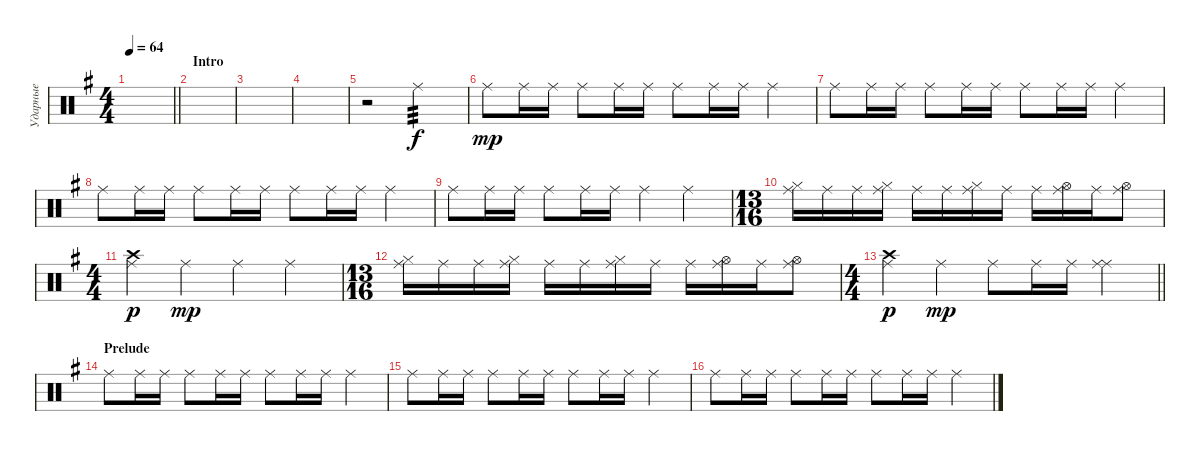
\track ("Ударные" "Ударные") {instrument percussion}
\staff {score}
\articulation defaults
\ts (4 4)
\tempo 64
\clef neutral
\barLineRight lightlight
\ks eminor
|
\section ("" "Intro")
|
|
|
r.2{volume 0} "Ride (middle)".2{tp 3 volume 16} |
"Ride (middle)".8{dy mp} "Ride (middle)".16 "Ride (middle)".16 "Ride (middle)".8 "Ride (middle)".16 "Ride (middle)".16 "Ride (middle)".8 "Ride (middle)".16 "Ride (middle)".16 "Ride (middle)".4 |
"Ride (middle)".8 "Ride (middle)".16 "Ride (middle)".16 "Ride (middle)".8 "Ride (middle)".16 "Ride (middle)".16 "Ride (middle)".8 "Ride (middle)".16 "Ride (middle)".16 "Ride (middle)".4 |
"Ride (middle)".8 "Ride (middle)".16 "Ride (middle)".16 "Ride (middle)".8 "Ride (middle)".16 "Ride (middle)".16 "Ride (middle)".8 "Ride (middle)".16 "Ride (middle)".16 "Ride (middle)".4 |
"Ride (middle)".8 "Ride (middle)".16 "Ride (middle)".16 "Ride (middle)".8 "Ride (middle)".16 "Ride (middle)".16 "Ride (middle)".4 "Ride (middle)".4 |
\ts (13 16)
("Hi-Hat (closed)" "Ride (middle)").16 "Ride (middle)".16 "Ride (middle)".16 ("Hi-Hat (closed)" "Ride (middle)").16 "Ride (middle)".16 "Ride (middle)".16 ("Hi-Hat (closed)" "Ride (middle)").16 "Ride (middle)".16 "Ride (middle)".16 ("Ride (middle)" "Hi-Hat (open)").16 "Ride (middle)".16 ("Ride (middle)" "Hi-Hat (open)").8 |
\ts (4 4)
("Crash high (hit)" "Ride (middle)").4{bd 60 dy p} "Ride (middle)".4{dy mp} "Ride (middle)".4 "Ride (middle)".4 |
\ts (13 16)
("Hi-Hat (closed)" "Ride (middle)").16 "Ride (middle)".16 "Ride (middle)".16 ("Hi-Hat (closed)" "Ride (middle)").16 "Ride (middle)".16 "Ride (middle)".16 ("Hi-Hat (closed)" "Ride (middle)").16 "Ride (middle)".16 "Ride (middle)".16 ("Ride (middle)" "Hi-Hat (open)").16 "Ride (middle)".16 ("Ride (middle)" "Hi-Hat (open)").8 |
\ts (4 4)
\barLineRight lightlight
("Crash high (hit)" "Ride (middle)").4{dy p} "Ride (middle)".4{dy mp} "Ride (middle)".8 "Ride (middle)".16 "Ride (middle)".16 ("Ride (middle)" "Ride (middle)").4{bd 120} |
\section ("" "Prelude")
"Ride (middle)".8 "Ride (middle)".16 "Ride (middle)".16 "Ride (middle)".8 "Ride (middle)".16 "Ride (middle)".16 "Ride (middle)".8 "Ride (middle)".16 "Ride (middle)".16 "Ride (middle)".4 |
"Ride (middle)".8 "Ride (middle)".16 "Ride (middle)".16 "Ride (middle)".8 "Ride (middle)".16 "Ride (middle)".16 "Ride (middle)".8 "Ride (middle)".16 "Ride (middle)".16 "Ride (middle)".4 |
"Ride (middle)".8 "Ride (middle)".16 "Ride (middle)".16 "Ride (middle)".8 "Ride (middle)".16 "Ride (middle)".16 "Ride (middle)".8 "Ride (middle)".16 "Ride (middle)".16 "Ride (middle)".4
